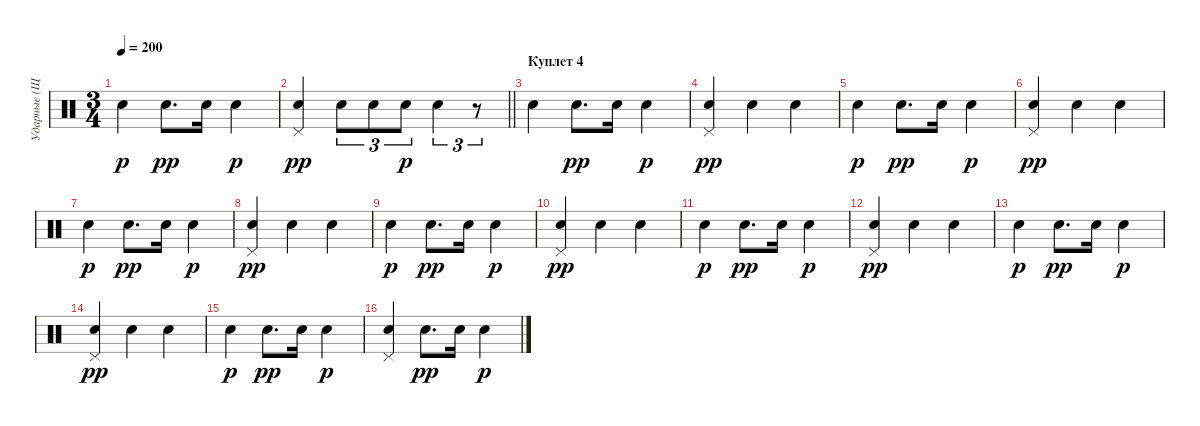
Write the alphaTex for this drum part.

\track ("Ударные (Щетками)" "Ударные (Щ") {instrument percussion}
\staff {score}
\articulation defaults
\ts (3 4)
\tempo 200
\clef neutral
\ks c "Snare (hit) 2".4{dy p} "Snare (hit) 2".8{d dy pp} "Snare (hit) 2".16 "Snare (hit) 2".4{dy p}
|
\barLineRight lightlight
("Pedal Hi-Hat (hit)" "Snare (hit) 2").4{dy pp} "Snare (hit) 2".8{tu (3 2)} "Snare (hit) 2".8{tu (3 2)} "Snare (hit) 2".8{tu (3 2) dy p} "Snare (hit) 2".4{tu (3 2)} r.8{tu (3 2)} |
\section ("" "Куплет 4")
"Snare (hit) 2".4 "Snare (hit) 2".8{d dy pp} "Snare (hit) 2".16 "Snare (hit) 2".4{dy p} |
("Pedal Hi-Hat (hit)" "Snare (hit) 2").4{dy pp} "Snare (hit) 2".4 "Snare (hit) 2".4 |
"Snare (hit) 2".4{dy p} "Snare (hit) 2".8{d dy pp} "Snare (hit) 2".16 "Snare (hit) 2".4{dy p} |
("Pedal Hi-Hat (hit)" "Snare (hit) 2").4{dy pp} "Snare (hit) 2".4 "Snare (hit) 2".4 |
"Snare (hit) 2".4{dy p} "Snare (hit) 2".8{d dy pp} "Snare (hit) 2".16 "Snare (hit) 2".4{dy p} |
("Pedal Hi-Hat (hit)" "Snare (hit) 2").4{dy pp} "Snare (hit) 2".4 "Snare (hit) 2".4 |
"Snare (hit) 2".4{dy p} "Snare (hit) 2".8{d dy pp} "Snare (hit) 2".16 "Snare (hit) 2".4{dy p} |
("Pedal Hi-Hat (hit)" "Snare (hit) 2").4{dy pp} "Snare (hit) 2".4 "Snare (hit) 2".4 |
"Snare (hit) 2".4{dy p} "Snare (hit) 2".8{d dy pp} "Snare (hit) 2".16 "Snare (hit) 2".4{dy p} |
("Pedal Hi-Hat (hit)" "Snare (hit) 2").4{dy pp} "Snare (hit) 2".4 "Snare (hit) 2".4 |
"Snare (hit) 2".4{dy p} "Snare (hit) 2".8{d dy pp} "Snare (hit) 2".16 "Snare (hit) 2".4{dy p} |
("Pedal Hi-Hat (hit)" "Snare (hit) 2").4{dy pp} "Snare (hit) 2".4 "Snare (hit) 2".4 |
"Snare (hit) 2".4{dy p} "Snare (hit) 2".8{d dy pp} "Snare (hit) 2".16 "Snare (hit) 2".4{dy p} |
("Pedal Hi-Hat (hit)" "Snare (hit) 2").4 "Snare (hit) 2".8{d dy pp} "Snare (hit) 2".16 "Snare (hit) 2".4{dy p}
